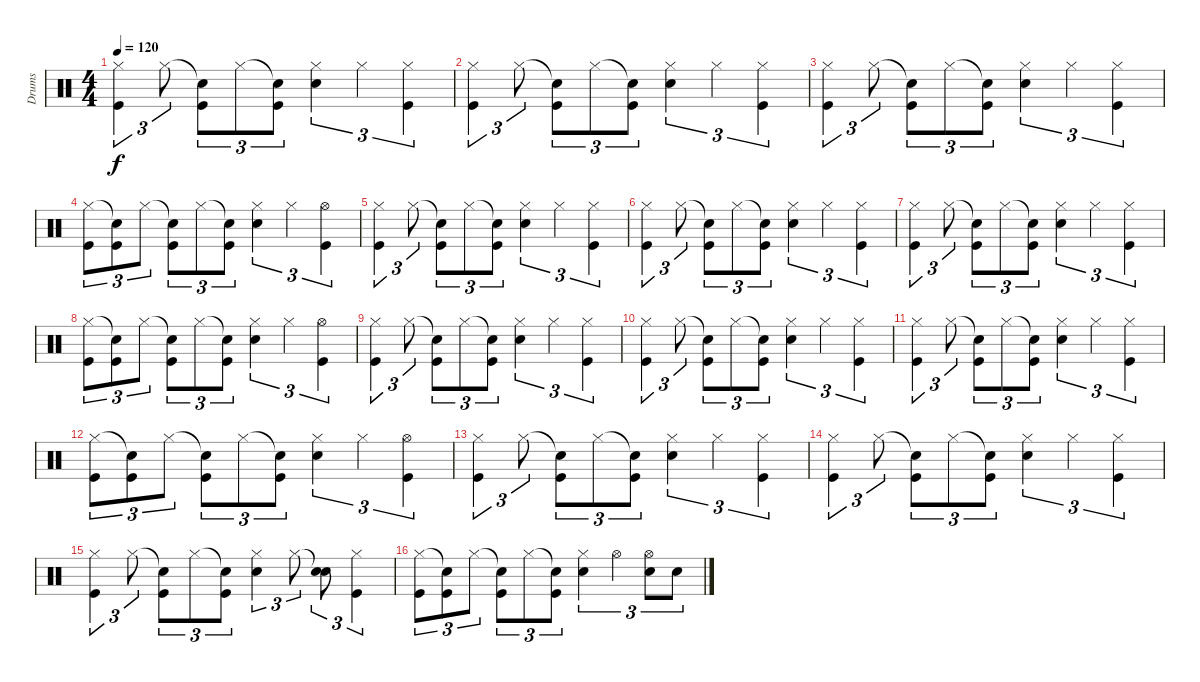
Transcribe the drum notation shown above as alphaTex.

\track ("Drums" "Drums") {instrument percussion}
\staff {score}
\articulation defaults
\ts (4 4)
\tempo 120
\clef neutral
\ks c
("Hi-Hat (closed)" "Kick (hit)").4{tu (3 2) dy f} "Hi-Hat (closed)".8{tu (3 2)} ("Snare (hit)"{t} "Kick (hit)").8{tu (3 2)} "Hi-Hat (closed)".8{tu (3 2)} ("Snare (hit)"{t} "Kick (hit)").8{tu (3 2)} ("Hi-Hat (closed)" "Electric Snare (hit)").4{tu (3 2)} "Hi-Hat (closed)".4{tu (3 2)} ("Hi-Hat (closed)" "Kick (hit)").4{tu (3 2)} |
("Hi-Hat (closed)" "Kick (hit)").4{tu (3 2)} "Hi-Hat (closed)".8{tu (3 2)} ("Snare (hit)"{t} "Kick (hit)").8{tu (3 2)} "Hi-Hat (closed)".8{tu (3 2)} ("Snare (hit)"{t} "Kick (hit)").8{tu (3 2)} ("Hi-Hat (closed)" "Electric Snare (hit)").4{tu (3 2)} "Hi-Hat (closed)".4{tu (3 2)} ("Hi-Hat (closed)" "Kick (hit)").4{tu (3 2)} |
("Hi-Hat (closed)" "Kick (hit)").4{tu (3 2)} "Hi-Hat (closed)".8{tu (3 2)} ("Snare (hit)"{t} "Kick (hit)").8{tu (3 2)} "Hi-Hat (closed)".8{tu (3 2)} ("Snare (hit)"{t} "Kick (hit)").8{tu (3 2)} ("Hi-Hat (closed)" "Electric Snare (hit)").4{tu (3 2)} "Hi-Hat (closed)".4{tu (3 2)} ("Hi-Hat (closed)" "Kick (hit)").4{tu (3 2)} |
("Hi-Hat (closed)" "Kick (hit)").8{tu (3 2)} ("Snare (hit)"{t} "Kick (hit)").8{tu (3 2)} "Hi-Hat (closed)".8{tu (3 2)} ("Snare (hit)"{t} "Kick (hit)").8{tu (3 2)} "Hi-Hat (closed)".8{tu (3 2)} ("Snare (hit)"{t} "Kick (hit)").8{tu (3 2)} ("Hi-Hat (closed)" "Electric Snare (hit)").4{tu (3 2)} "Hi-Hat (closed)".4{tu (3 2)} ("Hi-Hat (open)" "Kick (hit)").4{tu (3 2)} |
("Hi-Hat (closed)" "Kick (hit)").4{tu (3 2)} "Hi-Hat (closed)".8{tu (3 2)} ("Snare (hit)"{t} "Kick (hit)").8{tu (3 2)} "Hi-Hat (closed)".8{tu (3 2)} ("Snare (hit)"{t} "Kick (hit)").8{tu (3 2)} ("Hi-Hat (closed)" "Electric Snare (hit)").4{tu (3 2)} "Hi-Hat (closed)".4{tu (3 2)} ("Hi-Hat (closed)" "Kick (hit)").4{tu (3 2)} |
("Hi-Hat (closed)" "Kick (hit)").4{tu (3 2)} "Hi-Hat (closed)".8{tu (3 2)} ("Snare (hit)"{t} "Kick (hit)").8{tu (3 2)} "Hi-Hat (closed)".8{tu (3 2)} ("Snare (hit)"{t} "Kick (hit)").8{tu (3 2)} ("Hi-Hat (closed)" "Electric Snare (hit)").4{tu (3 2)} "Hi-Hat (closed)".4{tu (3 2)} ("Hi-Hat (closed)" "Kick (hit)").4{tu (3 2)} |
("Hi-Hat (closed)" "Kick (hit)").4{tu (3 2)} "Hi-Hat (closed)".8{tu (3 2)} ("Snare (hit)"{t} "Kick (hit)").8{tu (3 2)} "Hi-Hat (closed)".8{tu (3 2)} ("Snare (hit)"{t} "Kick (hit)").8{tu (3 2)} ("Hi-Hat (closed)" "Electric Snare (hit)").4{tu (3 2)} "Hi-Hat (closed)".4{tu (3 2)} ("Hi-Hat (closed)" "Kick (hit)").4{tu (3 2)} |
("Hi-Hat (closed)" "Kick (hit)").8{tu (3 2)} ("Snare (hit)"{t} "Kick (hit)").8{tu (3 2)} "Hi-Hat (closed)".8{tu (3 2)} ("Snare (hit)"{t} "Kick (hit)").8{tu (3 2)} "Hi-Hat (closed)".8{tu (3 2)} ("Snare (hit)"{t} "Kick (hit)").8{tu (3 2)} ("Hi-Hat (closed)" "Electric Snare (hit)").4{tu (3 2)} "Hi-Hat (closed)".4{tu (3 2)} ("Hi-Hat (open)" "Kick (hit)").4{tu (3 2)} |
("Hi-Hat (closed)" "Kick (hit)").4{tu (3 2)} "Hi-Hat (closed)".8{tu (3 2)} ("Snare (hit)"{t} "Kick (hit)").8{tu (3 2)} "Hi-Hat (closed)".8{tu (3 2)} ("Snare (hit)"{t} "Kick (hit)").8{tu (3 2)} ("Hi-Hat (closed)" "Electric Snare (hit)").4{tu (3 2)} "Hi-Hat (closed)".4{tu (3 2)} ("Hi-Hat (closed)" "Kick (hit)").4{tu (3 2)} |
("Hi-Hat (closed)" "Kick (hit)").4{tu (3 2)} "Hi-Hat (closed)".8{tu (3 2)} ("Snare (hit)"{t} "Kick (hit)").8{tu (3 2)} "Hi-Hat (closed)".8{tu (3 2)} ("Snare (hit)"{t} "Kick (hit)").8{tu (3 2)} ("Hi-Hat (closed)" "Electric Snare (hit)").4{tu (3 2)} "Hi-Hat (closed)".4{tu (3 2)} ("Hi-Hat (closed)" "Kick (hit)").4{tu (3 2)} |
("Hi-Hat (closed)" "Kick (hit)").4{tu (3 2)} "Hi-Hat (closed)".8{tu (3 2)} ("Snare (hit)"{t} "Kick (hit)").8{tu (3 2)} "Hi-Hat (closed)".8{tu (3 2)} ("Snare (hit)"{t} "Kick (hit)").8{tu (3 2)} ("Hi-Hat (closed)" "Electric Snare (hit)").4{tu (3 2)} "Hi-Hat (closed)".4{tu (3 2)} ("Hi-Hat (closed)" "Kick (hit)").4{tu (3 2)} |
("Hi-Hat (closed)" "Kick (hit)").8{tu (3 2)} ("Snare (hit)"{t} "Kick (hit)").8{tu (3 2)} "Hi-Hat (closed)".8{tu (3 2)} ("Snare (hit)"{t} "Kick (hit)").8{tu (3 2)} "Hi-Hat (closed)".8{tu (3 2)} ("Snare (hit)"{t} "Kick (hit)").8{tu (3 2)} ("Hi-Hat (closed)" "Electric Snare (hit)").4{tu (3 2)} "Hi-Hat (closed)".4{tu (3 2)} ("Hi-Hat (open)" "Kick (hit)").4{tu (3 2)} |
("Hi-Hat (closed)" "Kick (hit)").4{tu (3 2)} "Hi-Hat (closed)".8{tu (3 2)} ("Snare (hit)"{t} "Kick (hit)").8{tu (3 2)} "Hi-Hat (closed)".8{tu (3 2)} ("Snare (hit)"{t} "Kick (hit)").8{tu (3 2)} ("Hi-Hat (closed)" "Electric Snare (hit)").4{tu (3 2)} "Hi-Hat (closed)".4{tu (3 2)} ("Hi-Hat (closed)" "Kick (hit)").4{tu (3 2)} |
("Hi-Hat (closed)" "Kick (hit)").4{tu (3 2)} "Hi-Hat (closed)".8{tu (3 2)} ("Snare (hit)"{t} "Kick (hit)").8{tu (3 2)} "Hi-Hat (closed)".8{tu (3 2)} ("Snare (hit)"{t} "Kick (hit)").8{tu (3 2)} ("Hi-Hat (closed)" "Electric Snare (hit)").4{tu (3 2)} "Hi-Hat (closed)".4{tu (3 2)} ("Hi-Hat (closed)" "Kick (hit)").4{tu (3 2)} |
("Hi-Hat (closed)" "Kick (hit)").4{tu (3 2)} "Hi-Hat (closed)".8{tu (3 2)} ("Snare (hit)"{t} "Kick (hit)").8{tu (3 2)} "Hi-Hat (closed)".8{tu (3 2)} ("Snare (hit)"{t} "Kick (hit)").8{tu (3 2)} ("Hi-Hat (closed)" "Electric Snare (hit)").4{tu (3 2)} "Hi-Hat (closed)".8{tu (3 2)} ("Snare (hit)"{t} "Electric Snare (hit)").8{tu (3 2)} ("Hi-Hat (closed)" "Kick (hit)").4{tu (3 2)} |
("Hi-Hat (closed)" "Kick (hit)").8{tu (3 2)} ("Snare (hit)"{t} "Kick (hit)").8{tu (3 2)} "Hi-Hat (closed)".8{tu (3 2)} ("Snare (hit)"{t} "Kick (hit)").8{tu (3 2)} "Hi-Hat (closed)".8{tu (3 2)} ("Snare (hit)"{t} "Kick (hit)").8{tu (3 2)} ("Hi-Hat (closed)" "Electric Snare (hit)").4{tu (3 2)} "Hi-Hat (open)".4{tu (3 2)} ("Hi-Hat (open)" "Electric Snare (hit)").8{tu (3 2)} "Electric Snare (hit)".8{tu (3 2)}
